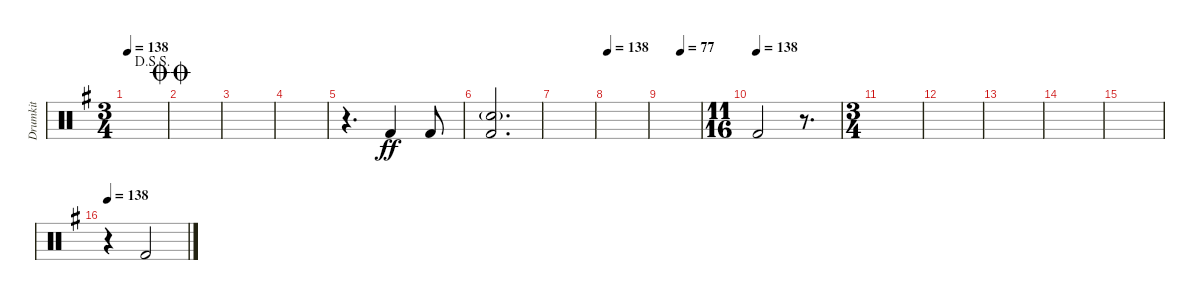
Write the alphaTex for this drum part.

\track ("Drumkit" "Drumkit") {instrument percussion}
\staff {score}
\articulation defaults
\ts (3 4)
\jump dalsegnosegno
\tempo 138
\clef neutral
\ks eminor
|
\jump doublecoda
|
|
|
r.4{d} "Kick (hit) 2".4{dy ff} "Kick (hit) 2".8 |
("Kick (hit) 2" "Snare (hit) 2"{g}).2{d} |
|
\tempo 138
|
\tempo (77 0.5)
|
\ts (11 16)
\tempo (138)
"Kick (hit) 2".2 r.8{d} |
\ts (3 4)
|
|
|
|
|
\tempo 138
r.4 "Kick (hit) 2".2
